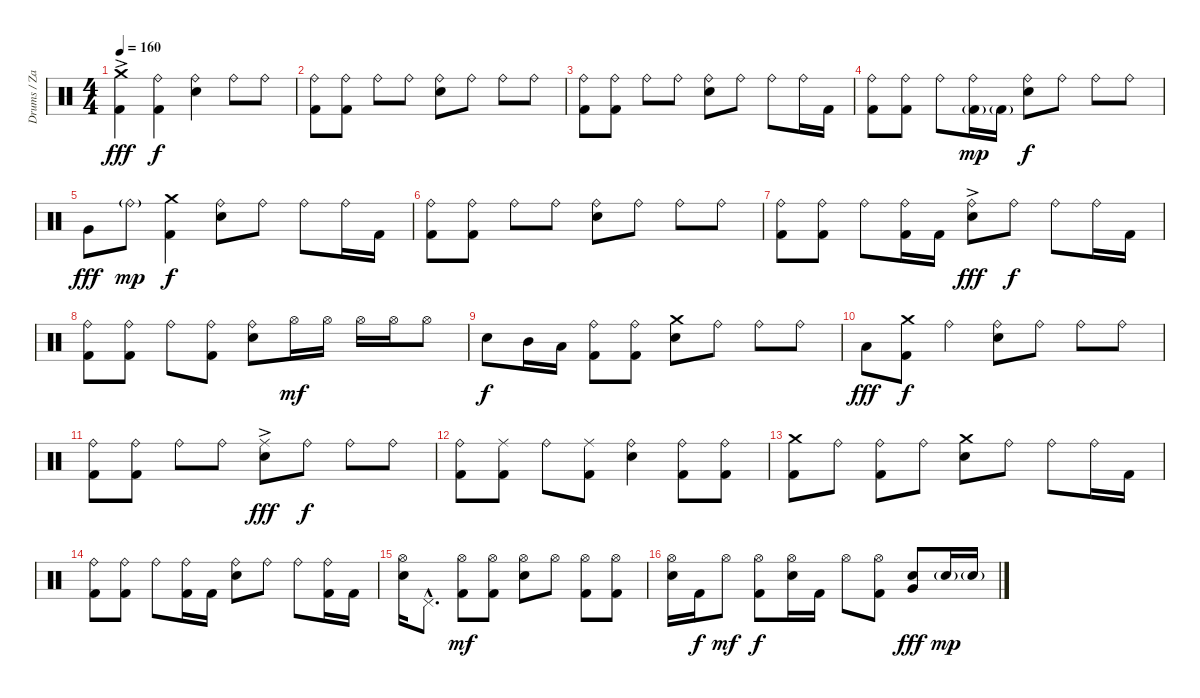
\track ("Drums / Zac Hill" "Drums / Za") {instrument percussion}
\staff {score}
\articulation defaults
\ts (4 4)
\tempo 160
\clef neutral
\ks c
("Crash medium (hit)"{ac} "Kick (hit) 2").4{dy fff} ("Ride (bell)" "Kick (hit) 2").4{dy f} ("Ride (bell)" "Electric Snare (hit)").4 "Ride (bell)".8 "Ride (bell)".8 |
("Ride (bell)" "Kick (hit) 2").8 ("Ride (bell)" "Kick (hit) 2").8 "Ride (bell)".8 "Ride (bell)".8 ("Ride (bell)" "Electric Snare (hit)").8 "Ride (bell)".8 "Ride (bell)".8 "Ride (bell)".8 |
("Ride (bell)" "Kick (hit) 2").8 ("Ride (bell)" "Kick (hit) 2").8 "Ride (bell)".8 "Ride (bell)".8 ("Ride (bell)" "Electric Snare (hit)").8 "Ride (bell)".8 "Ride (bell)".8 "Ride (bell)".16 "Kick (hit) 2".16 |
("Ride (bell)" "Kick (hit) 2").8 ("Ride (bell)" "Kick (hit) 2").8 "Ride (bell)".8 ("Ride (bell)" "Kick (hit) 2"{g}).16{dy mp} "Kick (hit) 2"{g}.16 ("Ride (bell)" "Electric Snare (hit)").8{dy f} "Ride (bell)".8 "Ride (bell)".8 "Ride (bell)".8 |
"Very Low Tom (hit)".8{dy fff} "Ride (bell)"{g}.8{dy mp} ("Crash medium (hit)" "Kick (hit) 2").4{dy f} ("Ride (bell)" "Electric Snare (hit)").8 "Ride (bell)".8 "Ride (bell)".8 "Ride (bell)".16 "Kick (hit) 2".16 |
("Ride (bell)" "Kick (hit) 2").8 ("Ride (bell)" "Kick (hit) 2").8 "Ride (bell)".8 "Ride (bell)".8 ("Ride (bell)" "Electric Snare (hit)").8 "Ride (bell)".8 "Ride (bell)".8 "Ride (bell)".8 |
("Ride (bell)" "Kick (hit) 2").8 ("Ride (bell)" "Kick (hit) 2").8 "Ride (bell)".8 ("Ride (bell)" "Kick (hit) 2").16 "Kick (hit) 2".16 ("Ride (bell)"{ac} "Electric Snare (hit)").8{dy fff} "Ride (bell)".8{dy f} "Ride (bell)".8 "Ride (bell)".16 "Kick (hit) 2".16 |
("Ride (bell)" "Kick (hit) 2").8 ("Ride (bell)" "Kick (hit) 2").8 "Ride (bell)".8 ("Ride (bell)" "Kick (hit) 2").8 ("Ride (bell)" "Electric Snare (hit)").8 "Hi-Hat (open)".16{dy mf} "Hi-Hat (open)".16 "Hi-Hat (open)".16 "Hi-Hat (open)".16 "Hi-Hat (open)".8 |
"Electric Snare (hit)".8{dy f} "Mid Tom (hit)".16 "Low Tom (hit)".16 ("Ride (bell)" "Kick (hit) 2").8 ("Ride (bell)" "Kick (hit) 2").8 ("Crash medium (hit)" "Electric Snare (hit)").8 "Ride (bell)".8 "Ride (bell)".8 "Ride (bell)".8 |
"Low Floor Tom (hit)".8{dy fff} ("Crash medium (hit)" "Kick (hit) 2").8{dy f} "Ride (bell)".4 ("Ride (bell)" "Electric Snare (hit)").8 "Ride (bell)".8 "Ride (bell)".8 "Ride (bell)".8 |
("Ride (bell)" "Kick (hit) 2").8 ("Ride (bell)" "Kick (hit) 2").8 "Ride (bell)".8 "Ride (bell)".8 ("Ride (middle)"{ac} "Electric Snare (hit)").8{dy fff} "Ride (bell)".8{dy f} "Ride (bell)".8 "Ride (bell)".8 |
("Ride (bell)" "Kick (hit) 2").8 ("Ride (middle)" "Kick (hit) 2").8 "Ride (bell)".8 ("Ride (middle)" "Kick (hit) 2").8 ("Ride (bell)" "Electric Snare (hit)").4 ("Ride (bell)" "Kick (hit) 2").8 ("Ride (bell)" "Kick (hit) 2").8 |
("Crash medium (hit)" "Kick (hit) 2").8 "Ride (bell)".8 ("Ride (bell)" "Kick (hit) 2").8 "Ride (bell)".8 ("Crash medium (hit)" "Electric Snare (hit)").8 "Ride (bell)".8 "Ride (bell)".8 "Ride (bell)".16 "Kick (hit) 2".16 |
("Ride (bell)" "Kick (hit) 2").8 ("Ride (bell)" "Kick (hit) 2").8 "Ride (bell)".8 ("Ride (bell)" "Kick (hit) 2").16 "Kick (hit) 2".16 ("Ride (bell)" "Electric Snare (hit)").8 "Ride (bell)".8 "Ride (bell)".8 ("Ride (bell)" "Kick (hit) 2").16 "Kick (hit) 2".16 |
("Hi-Hat (open)" "Electric Snare (hit)").16 "Pedal Hi-Hat (hit)"{hac}.8{d} ("Hi-Hat (open)" "Kick (hit) 2").8{dy mf} ("Hi-Hat (open)" "Kick (hit) 2").8 ("Hi-Hat (open)" "Electric Snare (hit)").8 "Hi-Hat (open)".8 ("Hi-Hat (open)" "Kick (hit) 2").8 ("Hi-Hat (open)" "Kick (hit) 2").8 |
("Hi-Hat (open)" "Electric Snare (hit)").16 "Kick (hit) 2".16{dy f} "Hi-Hat (open)".8{dy mf} ("Hi-Hat (open)" "Kick (hit) 2").8{dy f} ("Hi-Hat (open)" "Electric Snare (hit)").16 "Kick (hit) 2".16 "Hi-Hat (open)".8 ("Hi-Hat (open)" "Kick (hit) 2").8 ("Electric Snare (hit)" "Very Low Tom (hit)").8{dy fff} "Electric Snare (hit)"{g}.16{dy mp} "Electric Snare (hit)"{g}.16
